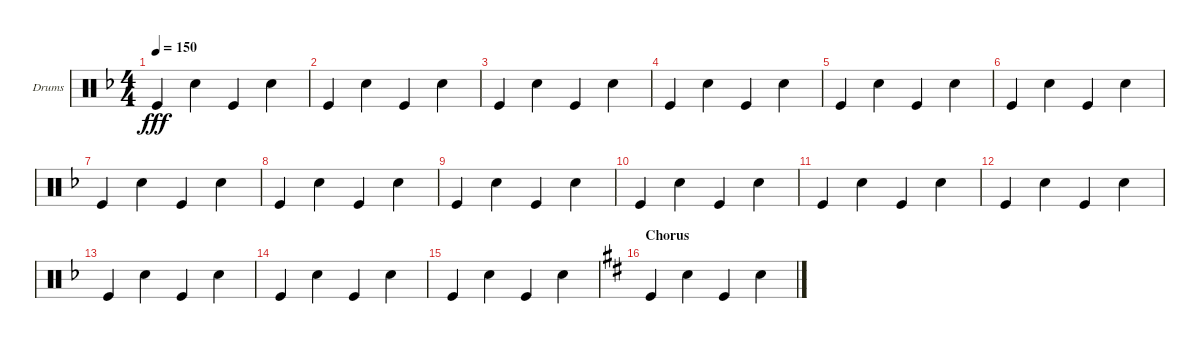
\defaultSystemsLayout 4
\bracketExtendMode groupsimilarinstruments
\firstSystemTrackNameOrientation horizontal
\otherSystemsTrackNameOrientation horizontal
\track ("Drumkit" "Drums") {instrument percussion}
\staff {score}
\articulation defaults
\ts (4 4)
\tempo 150
\clef neutral
\scale
0.333333
\ks f "Kick (hit)".4{dy fff} "Snare (hit) 2".4 "Kick (hit)".4 "Snare (hit) 2".4
|
\scale
0.333333 "Kick (hit)".4 "Snare (hit) 2".4 "Kick (hit)".4 "Snare (hit) 2".4 |
\scale
0.333333 "Kick (hit)".4 "Snare (hit) 2".4 "Kick (hit)".4 "Snare (hit) 2".4 |
\scale
0.333333 "Kick (hit)".4 "Snare (hit) 2".4 "Kick (hit)".4 "Snare (hit) 2".4 |
\scale
0.333333 "Kick (hit)".4 "Snare (hit) 2".4 "Kick (hit)".4 "Snare (hit) 2".4 |
\scale
0.333333 "Kick (hit)".4 "Snare (hit) 2".4 "Kick (hit)".4 "Snare (hit) 2".4 |
\scale
0.333333 "Kick (hit)".4 "Snare (hit) 2".4 "Kick (hit)".4 "Snare (hit) 2".4 |
\scale
0.333333 "Kick (hit)".4 "Snare (hit) 2".4 "Kick (hit)".4 "Snare (hit) 2".4 |
\scale
0.333333 "Kick (hit)".4 "Snare (hit) 2".4 "Kick (hit)".4 "Snare (hit) 2".4 |
\scale
0.333333 "Kick (hit)".4 "Snare (hit) 2".4 "Kick (hit)".4 "Snare (hit) 2".4 |
\scale
0.333333 "Kick (hit)".4 "Snare (hit) 2".4 "Kick (hit)".4 "Snare (hit) 2".4 |
\scale
0.333333 "Kick (hit)".4 "Snare (hit) 2".4 "Kick (hit)".4 "Snare (hit) 2".4 |
\scale
0.333333 "Kick (hit)".4 "Snare (hit) 2".4 "Kick (hit)".4 "Snare (hit) 2".4 |
\scale
0.257919 "Kick (hit)".4 "Snare (hit) 2".4 "Kick (hit)".4 "Snare (hit) 2".4 |
\scale
0.257919 "Kick (hit)".4 "Snare (hit) 2".4 "Kick (hit)".4 "Snare (hit) 2".4 |
\section ("" "Chorus")
\scale
0.484163
\ks d "Kick (hit)".4 "Snare (hit) 2".4 "Kick (hit)".4 "Snare (hit) 2".4
